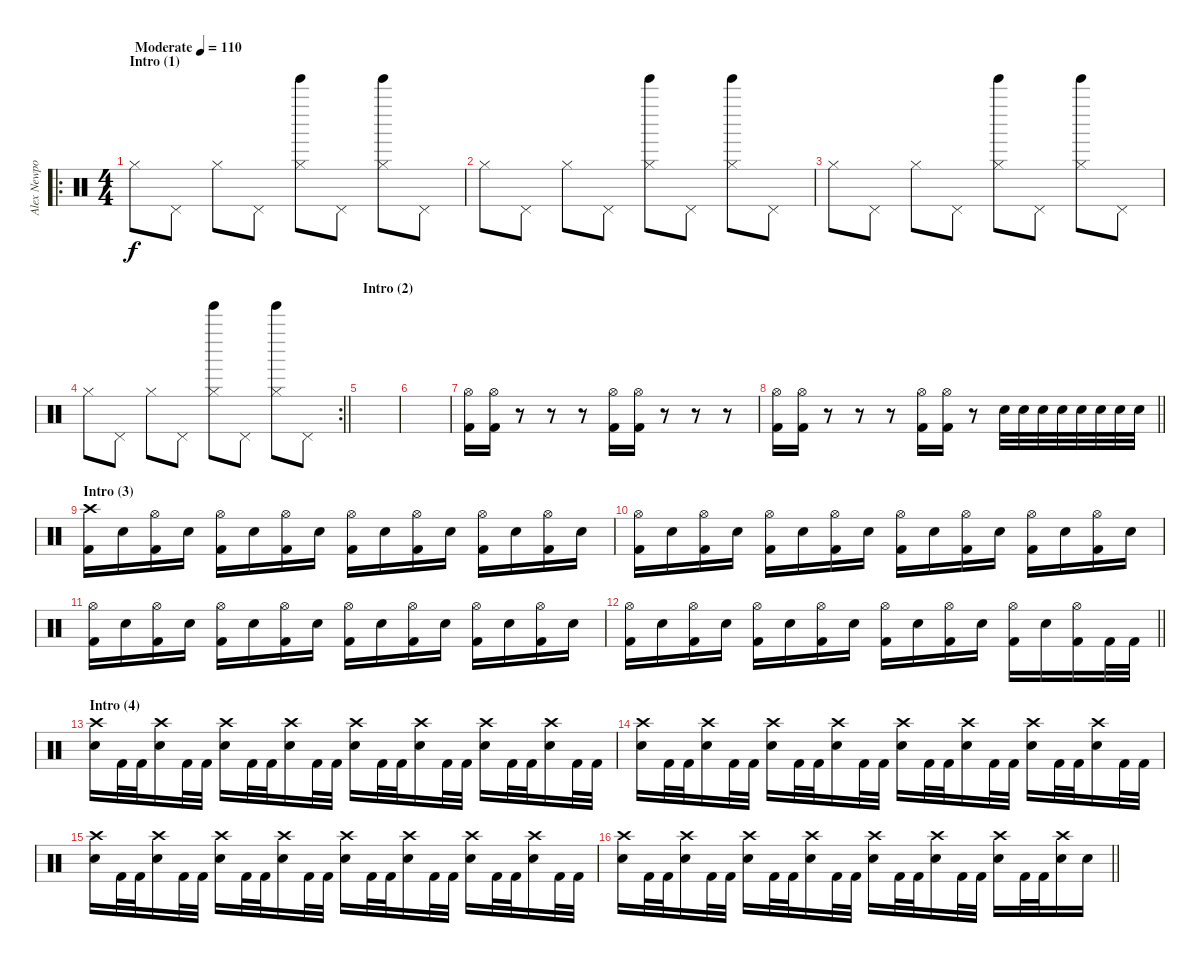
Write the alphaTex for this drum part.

\track ("Alex Newport" "Alex Newpo") {instrument percussion}
\staff {score}
\articulation defaults
\ro
\ts (4 4)
\section ("" "Intro (1)")
\tempo (110 "Moderate")
\clef neutral
\ks c "Hi-Hat (closed)".8{dy f} "Pedal Hi-Hat (hit)".8 "Hi-Hat (closed)".8 "Pedal Hi-Hat (hit)".8
("Hi-Hat (closed)" "Tinkle Bell (hit)").8 "Pedal Hi-Hat (hit)".8 ("Hi-Hat (closed)" "Tinkle Bell (hit)").8 "Pedal Hi-Hat (hit)".8 |
"Hi-Hat (closed)".8 "Pedal Hi-Hat (hit)".8 "Hi-Hat (closed)".8 "Pedal Hi-Hat (hit)".8 ("Hi-Hat (closed)" "Tinkle Bell (hit)").8 "Pedal Hi-Hat (hit)".8 ("Hi-Hat (closed)" "Tinkle Bell (hit)").8 "Pedal Hi-Hat (hit)".8 |
"Hi-Hat (closed)".8 "Pedal Hi-Hat (hit)".8 "Hi-Hat (closed)".8 "Pedal Hi-Hat (hit)".8 ("Hi-Hat (closed)" "Tinkle Bell (hit)").8 "Pedal Hi-Hat (hit)".8 ("Hi-Hat (closed)" "Tinkle Bell (hit)").8 "Pedal Hi-Hat (hit)".8 |
\rc 2
\barLineRight lightlight "Hi-Hat (closed)".8 "Pedal Hi-Hat (hit)".8 "Hi-Hat (closed)".8 "Pedal Hi-Hat (hit)".8
("Hi-Hat (closed)" "Tinkle Bell (hit)").8 "Pedal Hi-Hat (hit)".8 ("Hi-Hat (closed)" "Tinkle Bell (hit)").8 "Pedal Hi-Hat (hit)".8 |
\section ("" "Intro (2)")
|
|
("Hi-Hat (open)" "Kick (hit) 2").16 ("Hi-Hat (open)" "Kick (hit) 2").16 r.8 r.8 r.8 ("Hi-Hat (open)" "Kick (hit) 2").16 ("Hi-Hat (open)" "Kick (hit) 2").16 r.8 r.8 r.8 |
\barLineRight lightlight
("Hi-Hat (open)" "Kick (hit) 2").16 ("Hi-Hat (open)" "Kick (hit) 2").16 r.8 r.8 r.8 ("Hi-Hat (open)" "Kick (hit) 2").16 ("Hi-Hat (open)" "Kick (hit) 2").16 r.8 "Electric Snare (hit)".32 "Electric Snare (hit)".32 "Electric Snare (hit)".32 "Electric Snare (hit)".32 "Electric Snare (hit)".32 "Electric Snare (hit)".32 "Electric Snare (hit)".32 "Electric Snare (hit)".32 |
\section ("" "Intro (3)")
("Crash high (hit)" "Kick (hit) 2").16 "Electric Snare (hit)".16 ("Hi-Hat (open)" "Kick (hit) 2").16 "Electric Snare (hit)".16 ("Hi-Hat (open)" "Kick (hit) 2").16 "Electric Snare (hit)".16 ("Hi-Hat (open)" "Kick (hit) 2").16 "Electric Snare (hit)".16 ("Hi-Hat (open)" "Kick (hit) 2").16 "Electric Snare (hit)".16 ("Hi-Hat (open)" "Kick (hit) 2").16 "Electric Snare (hit)".16 ("Hi-Hat (open)" "Kick (hit) 2").16 "Electric Snare (hit)".16 ("Hi-Hat (open)" "Kick (hit) 2").16 "Electric Snare (hit)".16 |
("Hi-Hat (open)" "Kick (hit) 2").16 "Electric Snare (hit)".16 ("Hi-Hat (open)" "Kick (hit) 2").16 "Electric Snare (hit)".16 ("Hi-Hat (open)" "Kick (hit) 2").16 "Electric Snare (hit)".16 ("Hi-Hat (open)" "Kick (hit) 2").16 "Electric Snare (hit)".16 ("Hi-Hat (open)" "Kick (hit) 2").16 "Electric Snare (hit)".16 ("Hi-Hat (open)" "Kick (hit) 2").16 "Electric Snare (hit)".16 ("Hi-Hat (open)" "Kick (hit) 2").16 "Electric Snare (hit)".16 ("Hi-Hat (open)" "Kick (hit) 2").16 "Electric Snare (hit)".16 |
("Hi-Hat (open)" "Kick (hit) 2").16 "Electric Snare (hit)".16 ("Hi-Hat (open)" "Kick (hit) 2").16 "Electric Snare (hit)".16 ("Hi-Hat (open)" "Kick (hit) 2").16 "Electric Snare (hit)".16 ("Hi-Hat (open)" "Kick (hit) 2").16 "Electric Snare (hit)".16 ("Hi-Hat (open)" "Kick (hit) 2").16 "Electric Snare (hit)".16 ("Hi-Hat (open)" "Kick (hit) 2").16 "Electric Snare (hit)".16 ("Hi-Hat (open)" "Kick (hit) 2").16 "Electric Snare (hit)".16 ("Hi-Hat (open)" "Kick (hit) 2").16 "Electric Snare (hit)".16 |
\barLineRight lightlight
("Hi-Hat (open)" "Kick (hit) 2").16 "Electric Snare (hit)".16 ("Hi-Hat (open)" "Kick (hit) 2").16 "Electric Snare (hit)".16 ("Hi-Hat (open)" "Kick (hit) 2").16 "Electric Snare (hit)".16 ("Hi-Hat (open)" "Kick (hit) 2").16 "Electric Snare (hit)".16 ("Hi-Hat (open)" "Kick (hit) 2").16 "Electric Snare (hit)".16 ("Hi-Hat (open)" "Kick (hit) 2").16 "Electric Snare (hit)".16 ("Hi-Hat (open)" "Kick (hit) 2").16 "Electric Snare (hit)".16 ("Hi-Hat (open)" "Kick (hit) 2").16 "Kick (hit) 2".32 "Kick (hit) 2".32 |
\section ("" "Intro (4)")
("Crash high (hit)" "Electric Snare (hit)").16 "Kick (hit) 2".32 "Kick (hit) 2".32 ("Crash high (hit)" "Electric Snare (hit)").16 "Kick (hit) 2".32 "Kick (hit) 2".32 ("Crash high (hit)" "Electric Snare (hit)").16 "Kick (hit) 2".32 "Kick (hit) 2".32 ("Crash high (hit)" "Electric Snare (hit)").16 "Kick (hit) 2".32 "Kick (hit) 2".32 ("Crash high (hit)" "Electric Snare (hit)").16 "Kick (hit) 2".32 "Kick (hit) 2".32 ("Crash high (hit)" "Electric Snare (hit)").16 "Kick (hit) 2".32 "Kick (hit) 2".32 ("Crash high (hit)" "Electric Snare (hit)").16 "Kick (hit) 2".32 "Kick (hit) 2".32 ("Crash high (hit)" "Electric Snare (hit)").16 "Kick (hit) 2".32 "Kick (hit) 2".32 |
("Crash high (hit)" "Electric Snare (hit)").16 "Kick (hit) 2".32 "Kick (hit) 2".32 ("Crash high (hit)" "Electric Snare (hit)").16 "Kick (hit) 2".32 "Kick (hit) 2".32 ("Crash high (hit)" "Electric Snare (hit)").16 "Kick (hit) 2".32 "Kick (hit) 2".32 ("Crash high (hit)" "Electric Snare (hit)").16 "Kick (hit) 2".32 "Kick (hit) 2".32 ("Crash high (hit)" "Electric Snare (hit)").16 "Kick (hit) 2".32 "Kick (hit) 2".32 ("Crash high (hit)" "Electric Snare (hit)").16 "Kick (hit) 2".32 "Kick (hit) 2".32 ("Crash high (hit)" "Electric Snare (hit)").16 "Kick (hit) 2".32 "Kick (hit) 2".32 ("Crash high (hit)" "Electric Snare (hit)").16 "Kick (hit) 2".32 "Kick (hit) 2".32 |
("Crash high (hit)" "Electric Snare (hit)").16 "Kick (hit) 2".32 "Kick (hit) 2".32 ("Crash high (hit)" "Electric Snare (hit)").16 "Kick (hit) 2".32 "Kick (hit) 2".32 ("Crash high (hit)" "Electric Snare (hit)").16 "Kick (hit) 2".32 "Kick (hit) 2".32 ("Crash high (hit)" "Electric Snare (hit)").16 "Kick (hit) 2".32 "Kick (hit) 2".32 ("Crash high (hit)" "Electric Snare (hit)").16 "Kick (hit) 2".32 "Kick (hit) 2".32 ("Crash high (hit)" "Electric Snare (hit)").16 "Kick (hit) 2".32 "Kick (hit) 2".32 ("Crash high (hit)" "Electric Snare (hit)").16 "Kick (hit) 2".32 "Kick (hit) 2".32 ("Crash high (hit)" "Electric Snare (hit)").16 "Kick (hit) 2".32 "Kick (hit) 2".32 |
\barLineRight lightlight
("Crash high (hit)" "Electric Snare (hit)").16 "Kick (hit) 2".32 "Kick (hit) 2".32 ("Crash high (hit)" "Electric Snare (hit)").16 "Kick (hit) 2".32 "Kick (hit) 2".32 ("Crash high (hit)" "Electric Snare (hit)").16 "Kick (hit) 2".32 "Kick (hit) 2".32 ("Crash high (hit)" "Electric Snare (hit)").16 "Kick (hit) 2".32 "Kick (hit) 2".32 ("Crash high (hit)" "Electric Snare (hit)").16 "Kick (hit) 2".32 "Kick (hit) 2".32 ("Crash high (hit)" "Electric Snare (hit)").16 "Kick (hit) 2".32 "Kick (hit) 2".32 ("Crash high (hit)" "Electric Snare (hit)").16 "Kick (hit) 2".32 "Kick (hit) 2".32 ("Crash high (hit)" "Electric Snare (hit)").16 "Electric Snare (hit)".16
